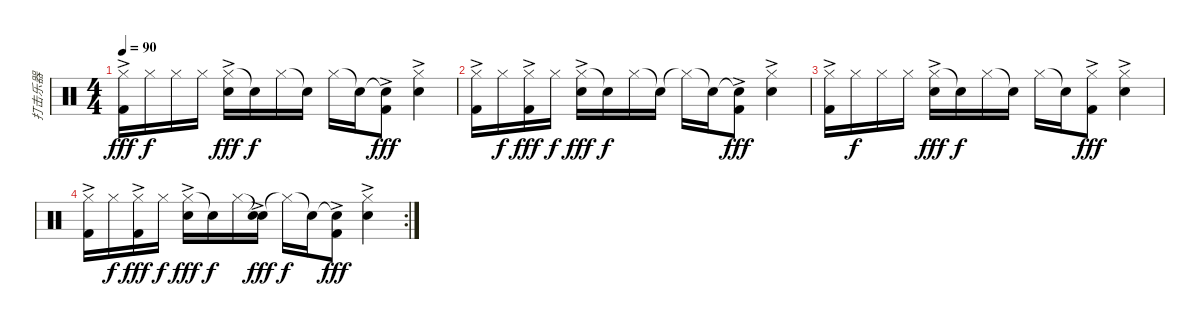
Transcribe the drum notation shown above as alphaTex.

\track ("打击乐器" "打击乐器") {instrument percussion}
\staff {score}
\articulation defaults
\ts (4 4)
\tempo 90
\clef neutral
\ks c
("Hi-Hat (closed)" "Kick (hit) 2"{ac}).16{dy fff} "Hi-Hat (closed)".16{dy f} "Hi-Hat (closed)".16 "Hi-Hat (closed)".16 ("Hi-Hat (closed)" "Electric Snare (hit)"{ac}).16{dy fff} "Snare (hit)"{t}.16{dy f} "Hi-Hat (closed)".16 "Snare (hit)"{t}.16 "Hi-Hat (closed)".16 "Snare (hit)"{t}.16 ("Snare (hit)"{t} "Kick (hit) 2"{ac}).8{dy fff} ("Hi-Hat (closed)" "Electric Snare (hit)"{ac}).4 |
("Hi-Hat (closed)" "Kick (hit) 2"{ac}).16 "Hi-Hat (closed)".16{dy f} ("Hi-Hat (closed)" "Kick (hit) 2"{ac}).16{dy fff} "Hi-Hat (closed)".16{dy f} ("Hi-Hat (closed)" "Electric Snare (hit)"{ac}).16{dy fff} "Snare (hit)"{t}.16{dy f} "Hi-Hat (closed)".16 "Snare (hit)"{t}.16 "Hi-Hat (closed)"{t}.16 "Snare (hit)"{t}.16 ("Snare (hit)"{t} "Kick (hit) 2"{ac}).8{dy fff} ("Hi-Hat (closed)" "Electric Snare (hit)"{ac}).4 |
("Hi-Hat (closed)" "Kick (hit) 2"{ac}).16 "Hi-Hat (closed)".16{dy f} "Hi-Hat (closed)".16 "Hi-Hat (closed)".16 ("Hi-Hat (closed)" "Electric Snare (hit)"{ac}).16{dy fff} "Snare (hit)"{t}.16{dy f} "Hi-Hat (closed)".16 "Snare (hit)"{t}.16 "Hi-Hat (closed)".16 "Snare (hit)"{t}.16 ("Hi-Hat (closed)" "Kick (hit) 2"{ac}).8{dy fff} ("Hi-Hat (closed)" "Electric Snare (hit)"{ac}).4 |
\rc 2
("Hi-Hat (closed)" "Kick (hit) 2"{ac}).16 "Hi-Hat (closed)".16{dy f} ("Hi-Hat (closed)" "Kick (hit) 2"{ac}).16{dy fff} "Hi-Hat (closed)".16{dy f} ("Hi-Hat (closed)" "Electric Snare (hit)"{ac}).16{dy fff} "Snare (hit)"{t}.16{dy f} "Hi-Hat (closed)".16 ("Snare (hit)"{t} "Electric Snare (hit)"{ac}).16{dy fff} "Hi-Hat (closed)"{t}.16{dy f} "Snare (hit)"{t}.16 ("Snare (hit)"{t} "Kick (hit) 2"{ac}).8{dy fff} ("Hi-Hat (closed)" "Electric Snare (hit)"{ac}).4
